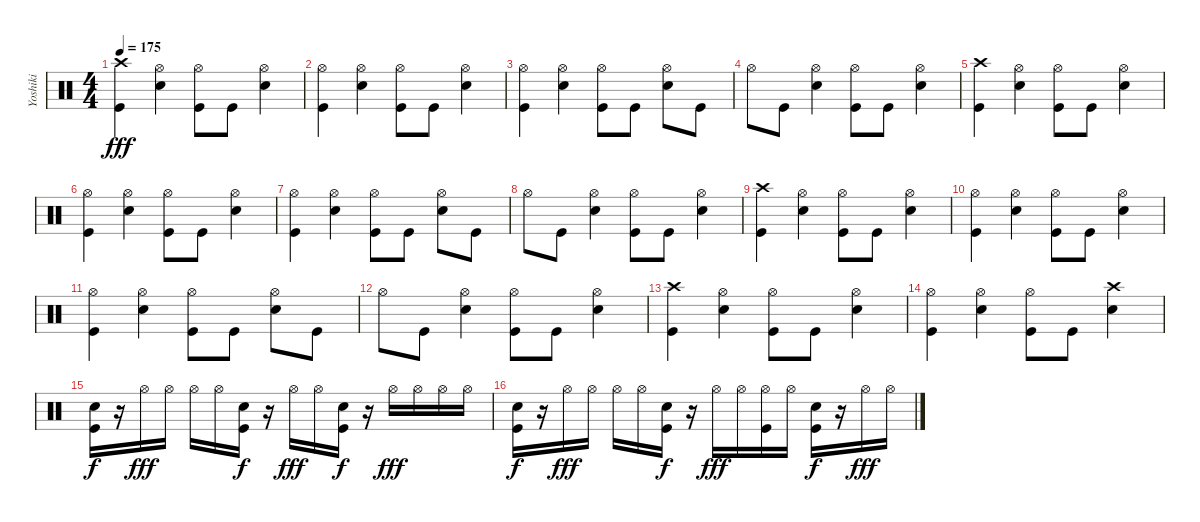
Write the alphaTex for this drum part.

\track ("Yoshiki" "Yoshiki") {instrument percussion}
\staff {score}
\articulation defaults
\ts (4 4)
\tempo 175
\clef neutral
\ks c
("Crash high (hit)" "Kick (hit)").4{dy fff} ("Hi-Hat (open)" "Snare (hit) 2").4 ("Hi-Hat (open)" "Kick (hit)").8 "Kick (hit)".8 ("Hi-Hat (open)" "Snare (hit) 2").4 |
("Hi-Hat (open)" "Kick (hit)").4 ("Hi-Hat (open)" "Snare (hit) 2").4 ("Hi-Hat (open)" "Kick (hit)").8 "Kick (hit)".8 ("Hi-Hat (open)" "Snare (hit) 2").4 |
("Hi-Hat (open)" "Kick (hit)").4 ("Hi-Hat (open)" "Snare (hit) 2").4 ("Hi-Hat (open)" "Kick (hit)").8 "Kick (hit)".8 ("Hi-Hat (open)" "Snare (hit) 2").8 "Kick (hit)".8 |
"Hi-Hat (open)".8 "Kick (hit)".8 ("Hi-Hat (open)" "Snare (hit) 2").4 ("Hi-Hat (open)" "Kick (hit)").8 "Kick (hit)".8 ("Hi-Hat (open)" "Snare (hit) 2").4 |
("Crash high (hit)" "Kick (hit)").4 ("Hi-Hat (open)" "Snare (hit) 2").4 ("Hi-Hat (open)" "Kick (hit)").8 "Kick (hit)".8 ("Hi-Hat (open)" "Snare (hit) 2").4 |
("Hi-Hat (open)" "Kick (hit)").4 ("Hi-Hat (open)" "Snare (hit) 2").4 ("Hi-Hat (open)" "Kick (hit)").8 "Kick (hit)".8 ("Hi-Hat (open)" "Snare (hit) 2").4 |
("Hi-Hat (open)" "Kick (hit)").4 ("Hi-Hat (open)" "Snare (hit) 2").4 ("Hi-Hat (open)" "Kick (hit)").8 "Kick (hit)".8 ("Hi-Hat (open)" "Snare (hit) 2").8 "Kick (hit)".8 |
"Hi-Hat (open)".8 "Kick (hit)".8 ("Hi-Hat (open)" "Snare (hit) 2").4 ("Hi-Hat (open)" "Kick (hit)").8 "Kick (hit)".8 ("Hi-Hat (open)" "Snare (hit) 2").4 |
("Crash high (hit)" "Kick (hit)").4 ("Hi-Hat (open)" "Snare (hit) 2").4 ("Hi-Hat (open)" "Kick (hit)").8 "Kick (hit)".8 ("Hi-Hat (open)" "Snare (hit) 2").4 |
("Hi-Hat (open)" "Kick (hit)").4{txt " "} ("Hi-Hat (open)" "Snare (hit) 2").4 ("Hi-Hat (open)" "Kick (hit)").8 "Kick (hit)".8 ("Hi-Hat (open)" "Snare (hit) 2").4 |
("Hi-Hat (open)" "Kick (hit)").4 ("Hi-Hat (open)" "Snare (hit) 2").4 ("Hi-Hat (open)" "Kick (hit)").8 "Kick (hit)".8 ("Hi-Hat (open)" "Snare (hit) 2").8 "Kick (hit)".8 |
"Hi-Hat (open)".8 "Kick (hit)".8 ("Hi-Hat (open)" "Snare (hit) 2").4 ("Hi-Hat (open)" "Kick (hit)").8 "Kick (hit)".8 ("Hi-Hat (open)" "Snare (hit) 2").4 |
("Crash high (hit)" "Kick (hit)").4 ("Hi-Hat (open)" "Snare (hit) 2").4 ("Hi-Hat (open)" "Kick (hit)").8 "Kick (hit)".8 ("Hi-Hat (open)" "Snare (hit) 2").4 |
("Hi-Hat (open)" "Kick (hit)").4 ("Hi-Hat (open)" "Snare (hit) 2").4 ("Hi-Hat (open)" "Kick (hit)").8 "Kick (hit)".8 ("Crash high (hit)" "Snare (hit) 2").4 |
("Snare (hit) 2" "Kick (hit)").16{dy f} r.16 "Hi-Hat (open)".16{dy fff} "Hi-Hat (open)".16 "Hi-Hat (open)".16 "Hi-Hat (open)".16 ("Snare (hit) 2" "Kick (hit)").16{dy f} r.16 "Hi-Hat (open)".16{dy fff} "Hi-Hat (open)".16 ("Snare (hit) 2" "Kick (hit)").16{dy f} r.16 "Hi-Hat (open)".16{dy fff} "Hi-Hat (open)".16 "Hi-Hat (open)".16 "Hi-Hat (open)".16 |
("Snare (hit) 2" "Kick (hit)").16{dy f} r.16 "Hi-Hat (open)".16{dy fff} "Hi-Hat (open)".16 "Hi-Hat (open)".16 "Hi-Hat (open)".16 ("Snare (hit) 2" "Kick (hit)").16{dy f} r.16 "Hi-Hat (open)".16{dy fff} "Hi-Hat (open)".16 ("Hi-Hat (open)" "Kick (hit)").16 "Hi-Hat (open)".16 ("Snare (hit) 2" "Kick (hit)").16{dy f} r.16 "Hi-Hat (open)".16{dy fff} "Hi-Hat (open)".16
